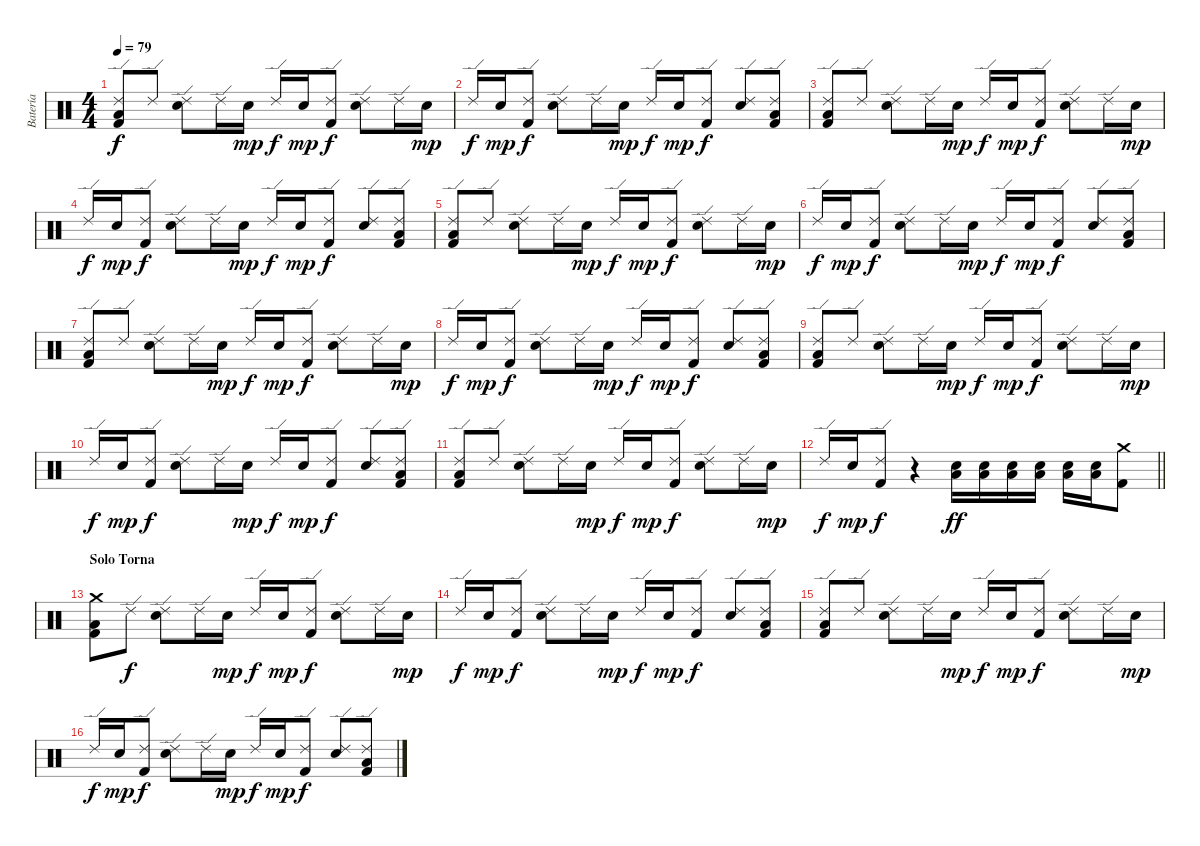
\track ("Batería" "Batería") {instrument percussion}
\staff {score}
\articulation defaults
\ts (4 4)
\tempo 79
\clef neutral
\ks c
("Ride (edge) 2" "Low Floor Tom (hit)" "Kick (hit) 2").8{dy f} "Ride (edge) 2".8 ("Ride (edge) 2" "Snare (hit) 2").8 "Ride (edge) 2".16 "Snare (hit) 2".16{dy mp} "Ride (edge) 2".16{dy f} "Snare (hit) 2".16{dy mp} ("Ride (edge) 2" "Kick (hit) 2").8{dy f} ("Ride (edge) 2" "Snare (hit) 2").8 "Ride (edge) 2".16 "Snare (hit) 2".16{dy mp} |
"Ride (edge) 2".16{dy f} "Snare (hit) 2".16{dy mp} ("Ride (edge) 2" "Kick (hit) 2").8{dy f} ("Ride (edge) 2" "Snare (hit) 2").8 "Ride (edge) 2".16 "Snare (hit) 2".16{dy mp} "Ride (edge) 2".16{dy f} "Snare (hit) 2".16{dy mp} ("Ride (edge) 2" "Kick (hit) 2").8{dy f} ("Ride (edge) 2" "Snare (hit) 2").8 ("Ride (edge) 2" "Low Floor Tom (hit)" "Kick (hit) 2").8 |
("Ride (edge) 2" "Low Floor Tom (hit)" "Kick (hit) 2").8 "Ride (edge) 2".8 ("Ride (edge) 2" "Snare (hit) 2").8 "Ride (edge) 2".16 "Snare (hit) 2".16{dy mp} "Ride (edge) 2".16{dy f} "Snare (hit) 2".16{dy mp} ("Ride (edge) 2" "Kick (hit) 2").8{dy f} ("Ride (edge) 2" "Snare (hit) 2").8 "Ride (edge) 2".16 "Snare (hit) 2".16{dy mp} |
"Ride (edge) 2".16{dy f} "Snare (hit) 2".16{dy mp} ("Ride (edge) 2" "Kick (hit) 2").8{dy f} ("Ride (edge) 2" "Snare (hit) 2").8 "Ride (edge) 2".16 "Snare (hit) 2".16{dy mp} "Ride (edge) 2".16{dy f} "Snare (hit) 2".16{dy mp} ("Ride (edge) 2" "Kick (hit) 2").8{dy f} ("Ride (edge) 2" "Snare (hit) 2").8 ("Ride (edge) 2" "Low Floor Tom (hit)" "Kick (hit) 2").8 |
("Ride (edge) 2" "Low Floor Tom (hit)" "Kick (hit) 2").8 "Ride (edge) 2".8 ("Ride (edge) 2" "Snare (hit) 2").8 "Ride (edge) 2".16 "Snare (hit) 2".16{dy mp} "Ride (edge) 2".16{dy f} "Snare (hit) 2".16{dy mp} ("Ride (edge) 2" "Kick (hit) 2").8{dy f} ("Ride (edge) 2" "Snare (hit) 2").8 "Ride (edge) 2".16 "Snare (hit) 2".16{dy mp} |
"Ride (edge) 2".16{dy f} "Snare (hit) 2".16{dy mp} ("Ride (edge) 2" "Kick (hit) 2").8{dy f} ("Ride (edge) 2" "Snare (hit) 2").8 "Ride (edge) 2".16 "Snare (hit) 2".16{dy mp} "Ride (edge) 2".16{dy f} "Snare (hit) 2".16{dy mp} ("Ride (edge) 2" "Kick (hit) 2").8{dy f} ("Ride (edge) 2" "Snare (hit) 2").8 ("Ride (edge) 2" "Low Floor Tom (hit)" "Kick (hit) 2").8 |
("Ride (edge) 2" "Low Floor Tom (hit)" "Kick (hit) 2").8 "Ride (edge) 2".8 ("Ride (edge) 2" "Snare (hit) 2").8 "Ride (edge) 2".16 "Snare (hit) 2".16{dy mp} "Ride (edge) 2".16{dy f} "Snare (hit) 2".16{dy mp} ("Ride (edge) 2" "Kick (hit) 2").8{dy f} ("Ride (edge) 2" "Snare (hit) 2").8 "Ride (edge) 2".16 "Snare (hit) 2".16{dy mp} |
"Ride (edge) 2".16{dy f} "Snare (hit) 2".16{dy mp} ("Ride (edge) 2" "Kick (hit) 2").8{dy f} ("Ride (edge) 2" "Snare (hit) 2").8 "Ride (edge) 2".16 "Snare (hit) 2".16{dy mp} "Ride (edge) 2".16{dy f} "Snare (hit) 2".16{dy mp} ("Ride (edge) 2" "Kick (hit) 2").8{dy f} ("Ride (edge) 2" "Snare (hit) 2").8 ("Ride (edge) 2" "Low Floor Tom (hit)" "Kick (hit) 2").8 |
("Ride (edge) 2" "Low Floor Tom (hit)" "Kick (hit) 2").8 "Ride (edge) 2".8 ("Ride (edge) 2" "Snare (hit) 2").8 "Ride (edge) 2".16 "Snare (hit) 2".16{dy mp} "Ride (edge) 2".16{dy f} "Snare (hit) 2".16{dy mp} ("Ride (edge) 2" "Kick (hit) 2").8{dy f} ("Ride (edge) 2" "Snare (hit) 2").8 "Ride (edge) 2".16 "Snare (hit) 2".16{dy mp} |
"Ride (edge) 2".16{dy f} "Snare (hit) 2".16{dy mp} ("Ride (edge) 2" "Kick (hit) 2").8{dy f} ("Ride (edge) 2" "Snare (hit) 2").8 "Ride (edge) 2".16 "Snare (hit) 2".16{dy mp} "Ride (edge) 2".16{dy f} "Snare (hit) 2".16{dy mp} ("Ride (edge) 2" "Kick (hit) 2").8{dy f} ("Ride (edge) 2" "Snare (hit) 2").8 ("Ride (edge) 2" "Low Floor Tom (hit)" "Kick (hit) 2").8 |
("Ride (edge) 2" "Low Floor Tom (hit)" "Kick (hit) 2").8 "Ride (edge) 2".8 ("Ride (edge) 2" "Snare (hit) 2").8 "Ride (edge) 2".16 "Snare (hit) 2".16{dy mp} "Ride (edge) 2".16{dy f} "Snare (hit) 2".16{dy mp} ("Ride (edge) 2" "Kick (hit) 2").8{dy f} ("Ride (edge) 2" "Snare (hit) 2").8 "Ride (edge) 2".16 "Snare (hit) 2".16{dy mp} |
\barLineRight lightlight "Ride (edge) 2".16{dy f} "Snare (hit) 2".16{dy mp}
("Ride (edge) 2" "Kick (hit) 2").8{dy f} r.4 ("Low Floor Tom (hit)" "Snare (hit) 2").16{dy ff} ("Low Floor Tom (hit)" "Snare (hit) 2").16 ("Low Floor Tom (hit)" "Snare (hit) 2").16 ("Low Floor Tom (hit)" "Snare (hit) 2").16 ("Low Floor Tom (hit)" "Snare (hit) 2").16 ("Low Floor Tom (hit)" "Snare (hit) 2").16 ("Crash medium (hit)" "Kick (hit) 2").8 |
\section ("" "Solo Torna")
("Crash medium (hit)" "Low Floor Tom (hit)" "Kick (hit) 2").8 "Ride (edge) 2".8{dy f} ("Ride (edge) 2" "Snare (hit) 2").8 "Ride (edge) 2".16 "Snare (hit) 2".16{dy mp} "Ride (edge) 2".16{dy f} "Snare (hit) 2".16{dy mp} ("Ride (edge) 2" "Kick (hit) 2").8{dy f} ("Ride (edge) 2" "Snare (hit) 2").8 "Ride (edge) 2".16 "Snare (hit) 2".16{dy mp} |
"Ride (edge) 2".16{dy f} "Snare (hit) 2".16{dy mp} ("Ride (edge) 2" "Kick (hit) 2").8{dy f} ("Ride (edge) 2" "Snare (hit) 2").8 "Ride (edge) 2".16 "Snare (hit) 2".16{dy mp} "Ride (edge) 2".16{dy f} "Snare (hit) 2".16{dy mp} ("Ride (edge) 2" "Kick (hit) 2").8{dy f} ("Ride (edge) 2" "Snare (hit) 2").8 ("Ride (edge) 2" "Low Floor Tom (hit)" "Kick (hit) 2").8 |
("Ride (edge) 2" "Low Floor Tom (hit)" "Kick (hit) 2").8 "Ride (edge) 2".8 ("Ride (edge) 2" "Snare (hit) 2").8 "Ride (edge) 2".16 "Snare (hit) 2".16{dy mp} "Ride (edge) 2".16{dy f} "Snare (hit) 2".16{dy mp} ("Ride (edge) 2" "Kick (hit) 2").8{dy f} ("Ride (edge) 2" "Snare (hit) 2").8 "Ride (edge) 2".16 "Snare (hit) 2".16{dy mp} |
"Ride (edge) 2".16{dy f} "Snare (hit) 2".16{dy mp} ("Ride (edge) 2" "Kick (hit) 2").8{dy f} ("Ride (edge) 2" "Snare (hit) 2").8 "Ride (edge) 2".16 "Snare (hit) 2".16{dy mp} "Ride (edge) 2".16{dy f} "Snare (hit) 2".16{dy mp} ("Ride (edge) 2" "Kick (hit) 2").8{dy f} ("Ride (edge) 2" "Snare (hit) 2").8 ("Ride (edge) 2" "Low Floor Tom (hit)" "Kick (hit) 2").8
